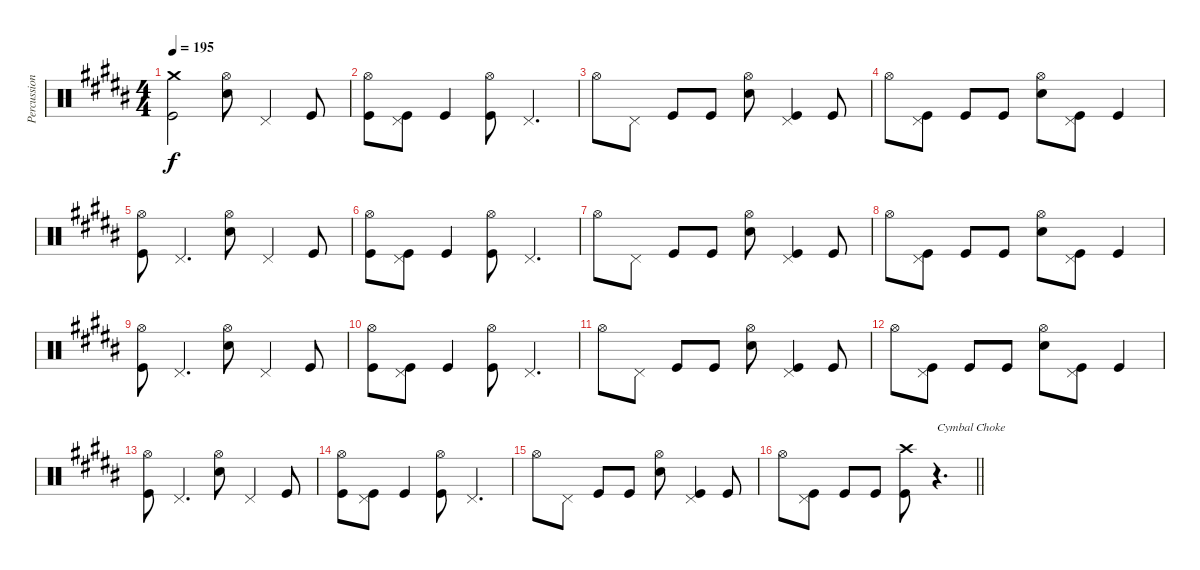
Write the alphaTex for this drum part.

\track ("Percussion" "Percussion") {instrument percussion}
\staff {score}
\articulation defaults
\ts (4 4)
\tempo 195
\clef neutral
\ks b
("Crash medium (hit)" "Kick (hit)").2{dy f} ("Hi-Hat (open)" "Electric Snare (hit)").8 "Pedal Hi-Hat (hit)".4 "Kick (hit)".8 |
("Hi-Hat (open)" "Kick (hit)").8 ("Pedal Hi-Hat (hit)" "Kick (hit)").8 "Kick (hit)".4 ("Hi-Hat (open)" "Kick (hit)").8 "Pedal Hi-Hat (hit)".4{d} |
"Hi-Hat (open)".8 "Pedal Hi-Hat (hit)".8 "Kick (hit)".8 "Kick (hit)".8 ("Hi-Hat (open)" "Electric Snare (hit)").8 ("Pedal Hi-Hat (hit)" "Kick (hit)").4 "Kick (hit)".8 |
"Hi-Hat (open)".8 ("Pedal Hi-Hat (hit)" "Kick (hit)").8 "Kick (hit)".8 "Kick (hit)".8 ("Hi-Hat (open)" "Electric Snare (hit)").8 ("Pedal Hi-Hat (hit)" "Kick (hit)").8 "Kick (hit)".4 |
("Hi-Hat (open)" "Kick (hit)").8 "Pedal Hi-Hat (hit)".4{d} ("Hi-Hat (open)" "Electric Snare (hit)").8 "Pedal Hi-Hat (hit)".4 "Kick (hit)".8 |
("Hi-Hat (open)" "Kick (hit)").8 ("Pedal Hi-Hat (hit)" "Kick (hit)").8 "Kick (hit)".4 ("Hi-Hat (open)" "Kick (hit)").8 "Pedal Hi-Hat (hit)".4{d} |
"Hi-Hat (open)".8 "Pedal Hi-Hat (hit)".8 "Kick (hit)".8 "Kick (hit)".8 ("Hi-Hat (open)" "Electric Snare (hit)").8 ("Pedal Hi-Hat (hit)" "Kick (hit)").4 "Kick (hit)".8 |
"Hi-Hat (open)".8 ("Pedal Hi-Hat (hit)" "Kick (hit)").8 "Kick (hit)".8 "Kick (hit)".8 ("Hi-Hat (open)" "Electric Snare (hit)").8 ("Pedal Hi-Hat (hit)" "Kick (hit)").8 "Kick (hit)".4 |
("Hi-Hat (open)" "Kick (hit)").8 "Pedal Hi-Hat (hit)".4{d} ("Hi-Hat (open)" "Electric Snare (hit)").8 "Pedal Hi-Hat (hit)".4 "Kick (hit)".8 |
("Hi-Hat (open)" "Kick (hit)").8 ("Pedal Hi-Hat (hit)" "Kick (hit)").8 "Kick (hit)".4 ("Hi-Hat (open)" "Kick (hit)").8 "Pedal Hi-Hat (hit)".4{d} |
"Hi-Hat (open)".8 "Pedal Hi-Hat (hit)".8 "Kick (hit)".8 "Kick (hit)".8 ("Hi-Hat (open)" "Electric Snare (hit)").8 ("Pedal Hi-Hat (hit)" "Kick (hit)").4 "Kick (hit)".8 |
"Hi-Hat (open)".8 ("Pedal Hi-Hat (hit)" "Kick (hit)").8 "Kick (hit)".8 "Kick (hit)".8 ("Hi-Hat (open)" "Electric Snare (hit)").8 ("Pedal Hi-Hat (hit)" "Kick (hit)").8 "Kick (hit)".4 |
("Hi-Hat (open)" "Kick (hit)").8 "Pedal Hi-Hat (hit)".4{d} ("Hi-Hat (open)" "Electric Snare (hit)").8 "Pedal Hi-Hat (hit)".4 "Kick (hit)".8 |
("Hi-Hat (open)" "Kick (hit)").8 ("Pedal Hi-Hat (hit)" "Kick (hit)").8 "Kick (hit)".4 ("Hi-Hat (open)" "Kick (hit)").8 "Pedal Hi-Hat (hit)".4{d} |
"Hi-Hat (open)".8 "Pedal Hi-Hat (hit)".8 "Kick (hit)".8 "Kick (hit)".8 ("Hi-Hat (open)" "Electric Snare (hit)").8 ("Pedal Hi-Hat (hit)" "Kick (hit)").4 "Kick (hit)".8 |
\barLineRight lightlight "Hi-Hat (open)".8
("Pedal Hi-Hat (hit)" "Kick (hit)").8 "Kick (hit)".8 "Kick (hit)".8 ("Crash high (hit)" "Kick (hit)").8 r.4{d txt "Cymbal Choke" volume 0}
